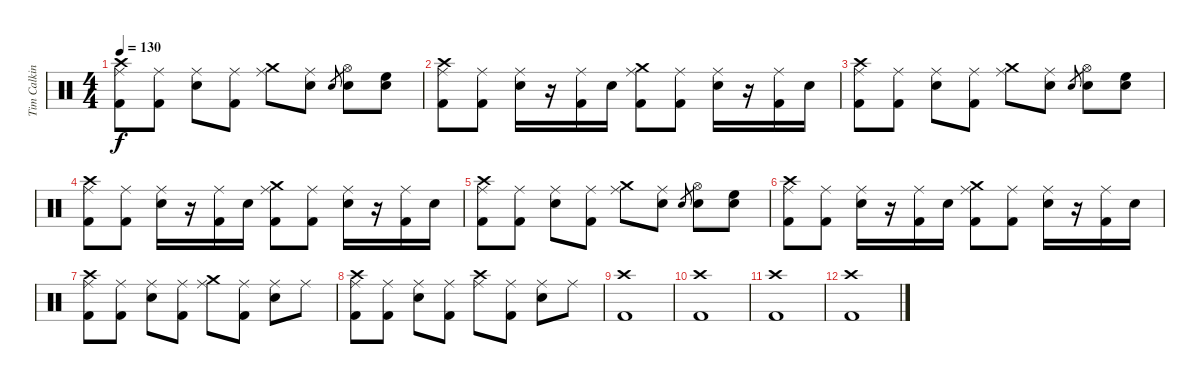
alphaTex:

\track ("Tim Calkin" "Tim Calkin") {instrument percussion}
\staff {score}
\articulation defaults
\ts (4 4)
\tempo 130
\clef neutral
\ks c
("Ride (middle)" "Crash high (hit)" "Kick (hit) 2").8{dy f} ("Ride (middle)" "Kick (hit) 2").8 ("Ride (middle)" "Snare (hit) 2").8 ("Ride (middle)" "Kick (hit) 2").8 ("Ride (middle)" "Crash medium (hit)").8 ("Ride (middle)" "Snare (hit) 2").8 "Snare (hit) 2".8{gr} ("Hi-Hat (open)" "Snare (hit) 2").8 ("High Floor Tom (hit)" "Snare (hit) 2").8 |
("Ride (middle)" "Crash high (hit)" "Kick (hit) 2").8 ("Ride (middle)" "Kick (hit) 2").8 ("Ride (middle)" "Snare (hit) 2").16 r.16 ("Ride (middle)" "Kick (hit) 2").16 "Snare (hit) 2".16 ("Ride (middle)" "Crash medium (hit)" "Kick (hit) 2").8 ("Ride (middle)" "Kick (hit) 2").8 ("Ride (middle)" "Snare (hit) 2").16 r.16 ("Ride (middle)" "Kick (hit) 2").16 "Snare (hit) 2".16 |
("Ride (middle)" "Crash high (hit)" "Kick (hit) 2").8 ("Ride (middle)" "Kick (hit) 2").8 ("Ride (middle)" "Snare (hit) 2").8 ("Ride (middle)" "Kick (hit) 2").8 ("Ride (middle)" "Crash medium (hit)").8 ("Ride (middle)" "Snare (hit) 2").8 "Snare (hit) 2".8{gr} ("Hi-Hat (open)" "Snare (hit) 2").8 ("High Floor Tom (hit)" "Snare (hit) 2").8 |
("Ride (middle)" "Crash high (hit)" "Kick (hit) 2").8 ("Ride (middle)" "Kick (hit) 2").8 ("Ride (middle)" "Snare (hit) 2").16 r.16 ("Ride (middle)" "Kick (hit) 2").16 "Snare (hit) 2".16 ("Ride (middle)" "Crash medium (hit)" "Kick (hit) 2").8 ("Ride (middle)" "Kick (hit) 2").8 ("Ride (middle)" "Snare (hit) 2").16 r.16 ("Ride (middle)" "Kick (hit) 2").16 "Snare (hit) 2".16 |
("Ride (middle)" "Crash high (hit)" "Kick (hit) 2").8 ("Ride (middle)" "Kick (hit) 2").8 ("Ride (middle)" "Snare (hit) 2").8 ("Ride (middle)" "Kick (hit) 2").8 ("Ride (middle)" "Crash medium (hit)").8 ("Ride (middle)" "Snare (hit) 2").8 "Snare (hit) 2".8{gr} ("Hi-Hat (open)" "Snare (hit) 2").8 ("High Floor Tom (hit)" "Snare (hit) 2").8 |
("Ride (middle)" "Crash high (hit)" "Kick (hit) 2").8 ("Ride (middle)" "Kick (hit) 2").8 ("Ride (middle)" "Snare (hit) 2").16 r.16 ("Ride (middle)" "Kick (hit) 2").16 "Snare (hit) 2".16 ("Ride (middle)" "Crash medium (hit)" "Kick (hit) 2").8 ("Ride (middle)" "Kick (hit) 2").8 ("Ride (middle)" "Snare (hit) 2").16 r.16 ("Ride (middle)" "Kick (hit) 2").16 "Snare (hit) 2".16 |
("Ride (middle)" "Crash high (hit)" "Kick (hit) 2").8 ("Ride (middle)" "Kick (hit) 2").8 ("Ride (middle)" "Snare (hit) 2").8 ("Ride (middle)" "Kick (hit) 2").8 ("Ride (middle)" "Crash medium (hit)").8 ("Ride (middle)" "Kick (hit) 2").8 ("Ride (middle)" "Snare (hit) 2").8 "Ride (middle)".8 |
("Ride (middle)" "Crash high (hit)" "Kick (hit) 2").8 ("Ride (middle)" "Kick (hit) 2").8 ("Ride (middle)" "Snare (hit) 2").8 ("Ride (middle)" "Kick (hit) 2").8 ("Ride (middle)" "Crash high (hit)").8 ("Ride (middle)" "Kick (hit) 2").8 ("Ride (middle)" "Snare (hit) 2").8 "Ride (middle)".8 |
("Crash high (hit)" "Kick (hit) 2").1 |
("Crash high (hit)" "Kick (hit) 2").1 |
("Crash high (hit)" "Kick (hit) 2").1 |
("Crash high (hit)" "Kick (hit) 2").1
